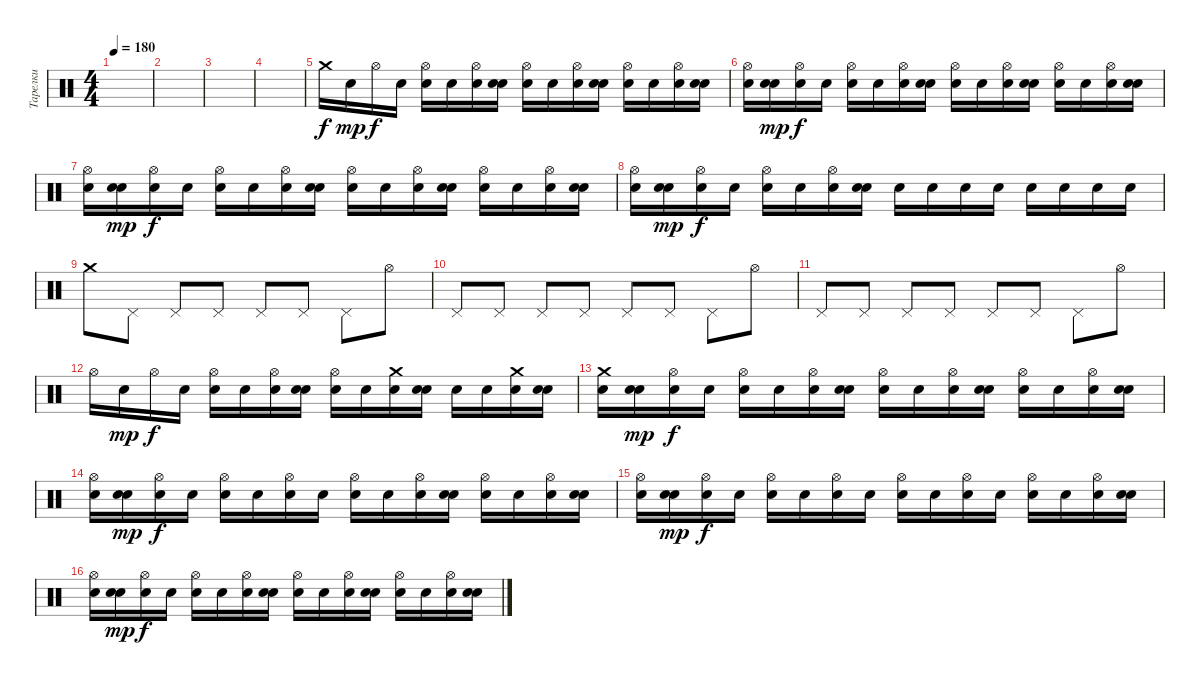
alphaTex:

\track ("Тарелки" "Тарелки") {instrument percussion}
\staff {score}
\articulation defaults
\ts (4 4)
\tempo 180
\clef neutral
\ks c
|
|
|
|
"Crash medium (hit)".16 "Snare (hit)".16{dy mp} "Hi-Hat (open)".16{dy f} "Snare (hit)".16 ("Hi-Hat (open)" "Snare (hit)").16 "Snare (hit)".16 ("Hi-Hat (open)" "Snare (hit)").16 ("Snare (hit)" "Snare (hit)").16 ("Hi-Hat (open)" "Snare (hit)").16 "Snare (hit)".16 ("Hi-Hat (open)" "Snare (hit)").16 ("Snare (hit)" "Snare (hit)").16 ("Hi-Hat (open)" "Snare (hit)").16 "Snare (hit)".16 ("Hi-Hat (open)" "Snare (hit)").16 ("Snare (hit)" "Snare (hit)").16 |
("Hi-Hat (open)" "Snare (hit)").16 ("Snare (hit)" "Snare (hit)").16{dy mp} ("Hi-Hat (open)" "Snare (hit)").16{dy f} "Snare (hit)".16 ("Hi-Hat (open)" "Snare (hit)").16 "Snare (hit)".16 ("Hi-Hat (open)" "Snare (hit)").16 ("Snare (hit)" "Snare (hit)").16 ("Hi-Hat (open)" "Snare (hit)").16 "Snare (hit)".16 ("Hi-Hat (open)" "Snare (hit)").16 ("Snare (hit)" "Snare (hit)").16 ("Hi-Hat (open)" "Snare (hit)").16 "Snare (hit)".16 ("Hi-Hat (open)" "Snare (hit)").16 ("Snare (hit)" "Snare (hit)").16 |
("Hi-Hat (open)" "Snare (hit)").16 ("Snare (hit)" "Snare (hit)").16{dy mp} ("Hi-Hat (open)" "Snare (hit)").16{dy f} "Snare (hit)".16 ("Hi-Hat (open)" "Snare (hit)").16 "Snare (hit)".16 ("Hi-Hat (open)" "Snare (hit)").16 ("Snare (hit)" "Snare (hit)").16 ("Hi-Hat (open)" "Snare (hit)").16 "Snare (hit)".16 ("Hi-Hat (open)" "Snare (hit)").16 ("Snare (hit)" "Snare (hit)").16 ("Hi-Hat (open)" "Snare (hit)").16 "Snare (hit)".16 ("Hi-Hat (open)" "Snare (hit)").16 ("Snare (hit)" "Snare (hit)").16 |
("Hi-Hat (open)" "Snare (hit)").16 ("Snare (hit)" "Snare (hit)").16{dy mp} ("Hi-Hat (open)" "Snare (hit)").16{dy f} "Snare (hit)".16 ("Hi-Hat (open)" "Snare (hit)").16 "Snare (hit)".16 ("Hi-Hat (open)" "Snare (hit)").16 ("Snare (hit)" "Snare (hit)").16 "Snare (hit)".16 "Snare (hit)".16 "Snare (hit)".16 "Snare (hit)".16 "Snare (hit)".16 "Snare (hit)".16 "Snare (hit)".16 "Snare (hit)".16 |
"Crash medium (hit)".8 "Pedal Hi-Hat (hit)".8 "Pedal Hi-Hat (hit)".8 "Pedal Hi-Hat (hit)".8 "Pedal Hi-Hat (hit)".8 "Pedal Hi-Hat (hit)".8 "Pedal Hi-Hat (hit)".8 "Hi-Hat (open)".8 |
"Pedal Hi-Hat (hit)".8 "Pedal Hi-Hat (hit)".8 "Pedal Hi-Hat (hit)".8 "Pedal Hi-Hat (hit)".8 "Pedal Hi-Hat (hit)".8 "Pedal Hi-Hat (hit)".8 "Pedal Hi-Hat (hit)".8 "Hi-Hat (open)".8 |
"Pedal Hi-Hat (hit)".8 "Pedal Hi-Hat (hit)".8 "Pedal Hi-Hat (hit)".8 "Pedal Hi-Hat (hit)".8 "Pedal Hi-Hat (hit)".8 "Pedal Hi-Hat (hit)".8 "Pedal Hi-Hat (hit)".8 "Hi-Hat (open)".8 |
"Hi-Hat (open)".16 "Snare (hit)".16{dy mp} "Hi-Hat (open)".16{dy f} "Snare (hit)".16 ("Hi-Hat (open)" "Snare (hit)").16 "Snare (hit)".16 ("Hi-Hat (open)" "Snare (hit)").16 ("Snare (hit)" "Snare (hit)").16 ("Hi-Hat (open)" "Snare (hit)").16 "Snare (hit)".16 ("Crash medium (hit)" "Snare (hit)").16 ("Snare (hit)" "Snare (hit)").16 "Snare (hit)".16 "Snare (hit)".16 ("Crash medium (hit)" "Snare (hit)").16 ("Snare (hit)" "Snare (hit)").16 |
("Crash medium (hit)" "Snare (hit)").16 ("Snare (hit)" "Snare (hit)").16{dy mp} ("Hi-Hat (open)" "Snare (hit)").16{dy f} "Snare (hit)".16 ("Hi-Hat (open)" "Snare (hit)").16 "Snare (hit)".16 ("Hi-Hat (open)" "Snare (hit)").16 ("Snare (hit)" "Snare (hit)").16 ("Hi-Hat (open)" "Snare (hit)").16 "Snare (hit)".16 ("Hi-Hat (open)" "Snare (hit)").16 ("Snare (hit)" "Snare (hit)").16 ("Hi-Hat (open)" "Snare (hit)").16 "Snare (hit)".16 ("Hi-Hat (open)" "Snare (hit)").16 ("Snare (hit)" "Snare (hit)").16 |
("Hi-Hat (open)" "Snare (hit)").16 ("Snare (hit)" "Snare (hit)").16{dy mp} ("Hi-Hat (open)" "Snare (hit)").16{dy f} "Snare (hit)".16 ("Hi-Hat (open)" "Snare (hit)").16 "Snare (hit)".16 ("Hi-Hat (open)" "Snare (hit)").16 "Snare (hit)".16 ("Hi-Hat (open)" "Snare (hit)").16 "Snare (hit)".16 ("Hi-Hat (open)" "Snare (hit)").16 ("Snare (hit)" "Snare (hit)").16 ("Hi-Hat (open)" "Snare (hit)").16 "Snare (hit)".16 ("Hi-Hat (open)" "Snare (hit)").16 ("Snare (hit)" "Snare (hit)").16 |
("Hi-Hat (open)" "Snare (hit)").16 ("Snare (hit)" "Snare (hit)").16{dy mp} ("Hi-Hat (open)" "Snare (hit)").16{dy f} "Snare (hit)".16 ("Hi-Hat (open)" "Snare (hit)").16 "Snare (hit)".16 ("Hi-Hat (open)" "Snare (hit)").16 "Snare (hit)".16 ("Hi-Hat (open)" "Snare (hit)").16 "Snare (hit)".16 ("Hi-Hat (open)" "Snare (hit)").16 "Snare (hit)".16 ("Hi-Hat (open)" "Snare (hit)").16 "Snare (hit)".16 ("Hi-Hat (open)" "Snare (hit)").16 ("Snare (hit)" "Snare (hit)").16 |
("Hi-Hat (open)" "Snare (hit)").16 ("Snare (hit)" "Snare (hit)").16{dy mp} ("Hi-Hat (open)" "Snare (hit)").16{dy f} "Snare (hit)".16 ("Hi-Hat (open)" "Snare (hit)").16 "Snare (hit)".16 ("Hi-Hat (open)" "Snare (hit)").16 ("Snare (hit)" "Snare (hit)").16 ("Hi-Hat (open)" "Snare (hit)").16 "Snare (hit)".16 ("Hi-Hat (open)" "Snare (hit)").16 ("Snare (hit)" "Snare (hit)").16 ("Hi-Hat (open)" "Snare (hit)").16 "Snare (hit)".16 ("Hi-Hat (open)" "Snare (hit)").16 ("Snare (hit)" "Snare (hit)").16
